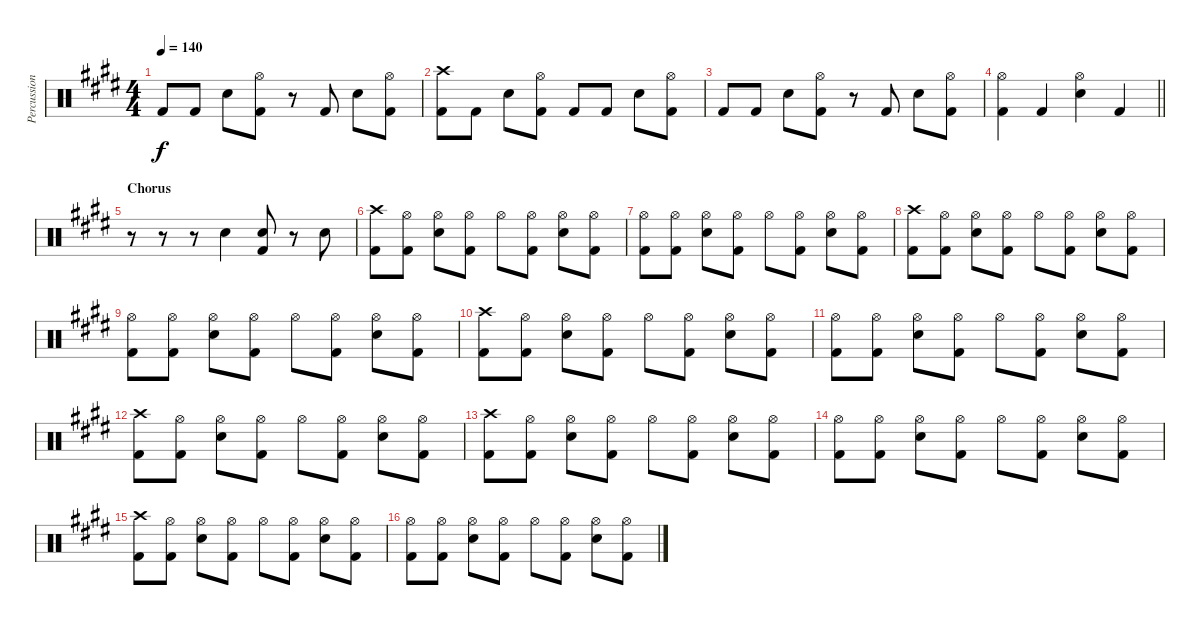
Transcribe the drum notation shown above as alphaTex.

\track ("Percussion" "Percussion") {instrument percussion}
\staff {score}
\articulation defaults
\ts (4 4)
\tempo 140
\clef neutral
\ks e "Kick (hit) 2".8{dy f} "Kick (hit) 2".8 "Electric Snare (hit)".8
("Hi-Hat (open)" "Kick (hit) 2").8 r.8 "Kick (hit) 2".8 "Electric Snare (hit)".8 ("Hi-Hat (open)" "Kick (hit) 2").8 |
("Crash high (hit)" "Kick (hit) 2").8 "Kick (hit) 2".8 "Electric Snare (hit)".8 ("Hi-Hat (open)" "Kick (hit) 2").8 "Kick (hit) 2".8 "Kick (hit) 2".8 "Electric Snare (hit)".8 ("Hi-Hat (open)" "Kick (hit) 2").8 |
"Kick (hit) 2".8 "Kick (hit) 2".8 "Electric Snare (hit)".8 ("Hi-Hat (open)" "Kick (hit) 2").8 r.8 "Kick (hit) 2".8 "Electric Snare (hit)".8 ("Hi-Hat (open)" "Kick (hit) 2").8 |
\barLineRight lightlight
("Hi-Hat (open)" "Kick (hit) 2").4 "Kick (hit) 2".4 ("Hi-Hat (open)" "Electric Snare (hit)").4 "Kick (hit) 2".4 |
\section ("" "Chorus")
r.8 r.8 r.8 "Electric Snare (hit)".4 ("Electric Snare (hit)" "Kick (hit) 2").8 r.8 "Electric Snare (hit)".8 |
("Crash high (hit)" "Kick (hit) 2").8 ("Hi-Hat (open)" "Kick (hit) 2").8 ("Hi-Hat (open)" "Electric Snare (hit)").8 ("Hi-Hat (open)" "Kick (hit) 2").8 "Hi-Hat (open)".8 ("Hi-Hat (open)" "Kick (hit) 2").8 ("Hi-Hat (open)" "Electric Snare (hit)").8 ("Hi-Hat (open)" "Kick (hit) 2").8 |
("Hi-Hat (open)" "Kick (hit) 2").8 ("Hi-Hat (open)" "Kick (hit) 2").8 ("Hi-Hat (open)" "Electric Snare (hit)").8 ("Hi-Hat (open)" "Kick (hit) 2").8 "Hi-Hat (open)".8 ("Hi-Hat (open)" "Kick (hit) 2").8 ("Hi-Hat (open)" "Electric Snare (hit)").8 ("Hi-Hat (open)" "Kick (hit) 2").8 |
("Crash high (hit)" "Kick (hit) 2").8 ("Hi-Hat (open)" "Kick (hit) 2").8 ("Hi-Hat (open)" "Electric Snare (hit)").8 ("Hi-Hat (open)" "Kick (hit) 2").8 "Hi-Hat (open)".8 ("Hi-Hat (open)" "Kick (hit) 2").8 ("Hi-Hat (open)" "Electric Snare (hit)").8 ("Hi-Hat (open)" "Kick (hit) 2").8 |
("Hi-Hat (open)" "Kick (hit) 2").8 ("Hi-Hat (open)" "Kick (hit) 2").8 ("Hi-Hat (open)" "Electric Snare (hit)").8 ("Hi-Hat (open)" "Kick (hit) 2").8 "Hi-Hat (open)".8 ("Hi-Hat (open)" "Kick (hit) 2").8 ("Hi-Hat (open)" "Electric Snare (hit)").8 ("Hi-Hat (open)" "Kick (hit) 2").8 |
("Crash high (hit)" "Kick (hit) 2").8 ("Hi-Hat (open)" "Kick (hit) 2").8 ("Hi-Hat (open)" "Electric Snare (hit)").8 ("Hi-Hat (open)" "Kick (hit) 2").8 "Hi-Hat (open)".8 ("Hi-Hat (open)" "Kick (hit) 2").8 ("Hi-Hat (open)" "Electric Snare (hit)").8 ("Hi-Hat (open)" "Kick (hit) 2").8 |
("Hi-Hat (open)" "Kick (hit) 2").8 ("Hi-Hat (open)" "Kick (hit) 2").8 ("Hi-Hat (open)" "Electric Snare (hit)").8 ("Hi-Hat (open)" "Kick (hit) 2").8 "Hi-Hat (open)".8 ("Hi-Hat (open)" "Kick (hit) 2").8 ("Hi-Hat (open)" "Electric Snare (hit)").8 ("Hi-Hat (open)" "Kick (hit) 2").8 |
("Crash high (hit)" "Kick (hit) 2").8 ("Hi-Hat (open)" "Kick (hit) 2").8 ("Hi-Hat (open)" "Electric Snare (hit)").8 ("Hi-Hat (open)" "Kick (hit) 2").8 "Hi-Hat (open)".8 ("Hi-Hat (open)" "Kick (hit) 2").8 ("Hi-Hat (open)" "Electric Snare (hit)").8 ("Hi-Hat (open)" "Kick (hit) 2").8 |
("Crash high (hit)" "Kick (hit) 2").8 ("Hi-Hat (open)" "Kick (hit) 2").8 ("Hi-Hat (open)" "Electric Snare (hit)").8 ("Hi-Hat (open)" "Kick (hit) 2").8 "Hi-Hat (open)".8 ("Hi-Hat (open)" "Kick (hit) 2").8 ("Hi-Hat (open)" "Electric Snare (hit)").8 ("Hi-Hat (open)" "Kick (hit) 2").8 |
("Hi-Hat (open)" "Kick (hit) 2").8 ("Hi-Hat (open)" "Kick (hit) 2").8 ("Hi-Hat (open)" "Electric Snare (hit)").8 ("Hi-Hat (open)" "Kick (hit) 2").8 "Hi-Hat (open)".8 ("Hi-Hat (open)" "Kick (hit) 2").8 ("Hi-Hat (open)" "Electric Snare (hit)").8 ("Hi-Hat (open)" "Kick (hit) 2").8 |
("Crash high (hit)" "Kick (hit) 2").8 ("Hi-Hat (open)" "Kick (hit) 2").8 ("Hi-Hat (open)" "Electric Snare (hit)").8 ("Hi-Hat (open)" "Kick (hit) 2").8 "Hi-Hat (open)".8 ("Hi-Hat (open)" "Kick (hit) 2").8 ("Hi-Hat (open)" "Electric Snare (hit)").8 ("Hi-Hat (open)" "Kick (hit) 2").8 |
("Hi-Hat (open)" "Kick (hit) 2").8 ("Hi-Hat (open)" "Kick (hit) 2").8 ("Hi-Hat (open)" "Electric Snare (hit)").8 ("Hi-Hat (open)" "Kick (hit) 2").8 "Hi-Hat (open)".8 ("Hi-Hat (open)" "Kick (hit) 2").8 ("Hi-Hat (open)" "Electric Snare (hit)").8 ("Hi-Hat (open)" "Kick (hit) 2").8
